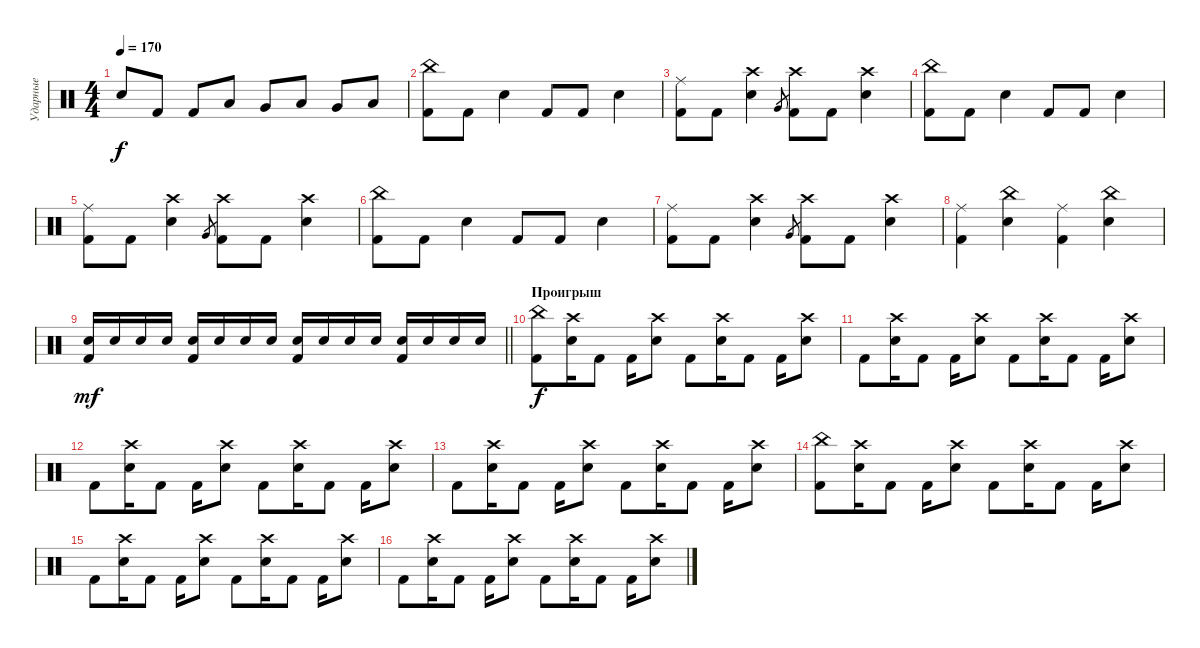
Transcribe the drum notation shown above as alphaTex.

\track ("Ударные" "Ударные") {instrument percussion}
\staff {score}
\articulation defaults
\ts (4 4)
\tempo 170
\clef neutral
\ks c "Electric Snare (hit)".8{dy f} "Kick (hit) 2".8 "Kick (hit) 2".8 "Low Tom (hit)".8 "Very Low Tom (hit)".8 "Low Floor Tom (hit)".8 "Very Low Tom (hit)".8 "Low Floor Tom (hit)".8
|
("Kick (hit) 2" "China (hit)").8 "Kick (hit) 2".8 "Electric Snare (hit)".4 "Kick (hit) 2".8 "Kick (hit) 2".8 "Electric Snare (hit)".4 |
("Kick (hit) 2" "Ride (middle)").8 "Kick (hit) 2".8 ("Electric Snare (hit)" "Crash high (hit)").4 "Very Low Tom (hit)".8{gr} ("Kick (hit) 2" "Crash high (hit)").8 "Kick (hit) 2".8 ("Electric Snare (hit)" "Crash high (hit)").4 |
("Kick (hit) 2" "China (hit)").8 "Kick (hit) 2".8 "Electric Snare (hit)".4 "Kick (hit) 2".8 "Kick (hit) 2".8 "Electric Snare (hit)".4 |
("Kick (hit) 2" "Ride (middle)").8 "Kick (hit) 2".8 ("Electric Snare (hit)" "Crash high (hit)").4 "Very Low Tom (hit)".8{gr} ("Kick (hit) 2" "Crash high (hit)").8 "Kick (hit) 2".8 ("Electric Snare (hit)" "Crash high (hit)").4 |
("Kick (hit) 2" "China (hit)").8 "Kick (hit) 2".8 "Electric Snare (hit)".4 "Kick (hit) 2".8 "Kick (hit) 2".8 "Electric Snare (hit)".4 |
("Kick (hit) 2" "Ride (middle)").8 "Kick (hit) 2".8 ("Electric Snare (hit)" "Crash high (hit)").4 "Very Low Tom (hit)".8{gr} ("Kick (hit) 2" "Crash high (hit)").8 "Kick (hit) 2".8 ("Electric Snare (hit)" "Crash high (hit)").4 |
("Kick (hit) 2" "Ride (middle)").4 ("Electric Snare (hit)" "China (hit)").4 ("Kick (hit) 2" "Ride (middle)").4 ("Electric Snare (hit)" "China (hit)").4 |
\barLineRight lightlight
("Kick (hit) 2" "Electric Snare (hit)").16{dy mf} "Electric Snare (hit)".16 "Electric Snare (hit)".16 "Electric Snare (hit)".16 ("Kick (hit) 2" "Electric Snare (hit)").16 "Electric Snare (hit)".16 "Electric Snare (hit)".16 "Electric Snare (hit)".16 ("Kick (hit) 2" "Electric Snare (hit)").16 "Electric Snare (hit)".16 "Electric Snare (hit)".16 "Electric Snare (hit)".16 ("Kick (hit) 2" "Electric Snare (hit)").16 "Electric Snare (hit)".16 "Electric Snare (hit)".16 "Electric Snare (hit)".16 |
\section ("" "Проигрыш")
("Kick (hit) 2" "China (hit)").8{dy f} ("Electric Snare (hit)" "Crash high (hit)").16 "Kick (hit) 2".8 "Kick (hit) 2".16 ("Electric Snare (hit)" "Crash high (hit)").8 "Kick (hit) 2".8 ("Electric Snare (hit)" "Crash high (hit)").16 "Kick (hit) 2".8 "Kick (hit) 2".16 ("Electric Snare (hit)" "Crash high (hit)").8 |
"Kick (hit) 2".8 ("Electric Snare (hit)" "Crash high (hit)").16 "Kick (hit) 2".8 "Kick (hit) 2".16 ("Electric Snare (hit)" "Crash high (hit)").8 "Kick (hit) 2".8 ("Electric Snare (hit)" "Crash high (hit)").16 "Kick (hit) 2".8 "Kick (hit) 2".16 ("Electric Snare (hit)" "Crash high (hit)").8 |
"Kick (hit) 2".8 ("Electric Snare (hit)" "Crash high (hit)").16 "Kick (hit) 2".8 "Kick (hit) 2".16 ("Electric Snare (hit)" "Crash high (hit)").8 "Kick (hit) 2".8 ("Electric Snare (hit)" "Crash high (hit)").16 "Kick (hit) 2".8 "Kick (hit) 2".16 ("Electric Snare (hit)" "Crash high (hit)").8 |
"Kick (hit) 2".8 ("Electric Snare (hit)" "Crash high (hit)").16 "Kick (hit) 2".8 "Kick (hit) 2".16 ("Electric Snare (hit)" "Crash high (hit)").8 "Kick (hit) 2".8 ("Electric Snare (hit)" "Crash high (hit)").16 "Kick (hit) 2".8 "Kick (hit) 2".16 ("Electric Snare (hit)" "Crash high (hit)").8 |
("Kick (hit) 2" "China (hit)").8 ("Electric Snare (hit)" "Crash high (hit)").16 "Kick (hit) 2".8 "Kick (hit) 2".16 ("Electric Snare (hit)" "Crash high (hit)").8 "Kick (hit) 2".8 ("Electric Snare (hit)" "Crash high (hit)").16 "Kick (hit) 2".8 "Kick (hit) 2".16 ("Electric Snare (hit)" "Crash high (hit)").8 |
"Kick (hit) 2".8 ("Electric Snare (hit)" "Crash high (hit)").16 "Kick (hit) 2".8 "Kick (hit) 2".16 ("Electric Snare (hit)" "Crash high (hit)").8 "Kick (hit) 2".8 ("Electric Snare (hit)" "Crash high (hit)").16 "Kick (hit) 2".8 "Kick (hit) 2".16 ("Electric Snare (hit)" "Crash high (hit)").8 |
"Kick (hit) 2".8 ("Electric Snare (hit)" "Crash high (hit)").16 "Kick (hit) 2".8 "Kick (hit) 2".16 ("Electric Snare (hit)" "Crash high (hit)").8 "Kick (hit) 2".8 ("Electric Snare (hit)" "Crash high (hit)").16 "Kick (hit) 2".8 "Kick (hit) 2".16 ("Electric Snare (hit)" "Crash high (hit)").8
